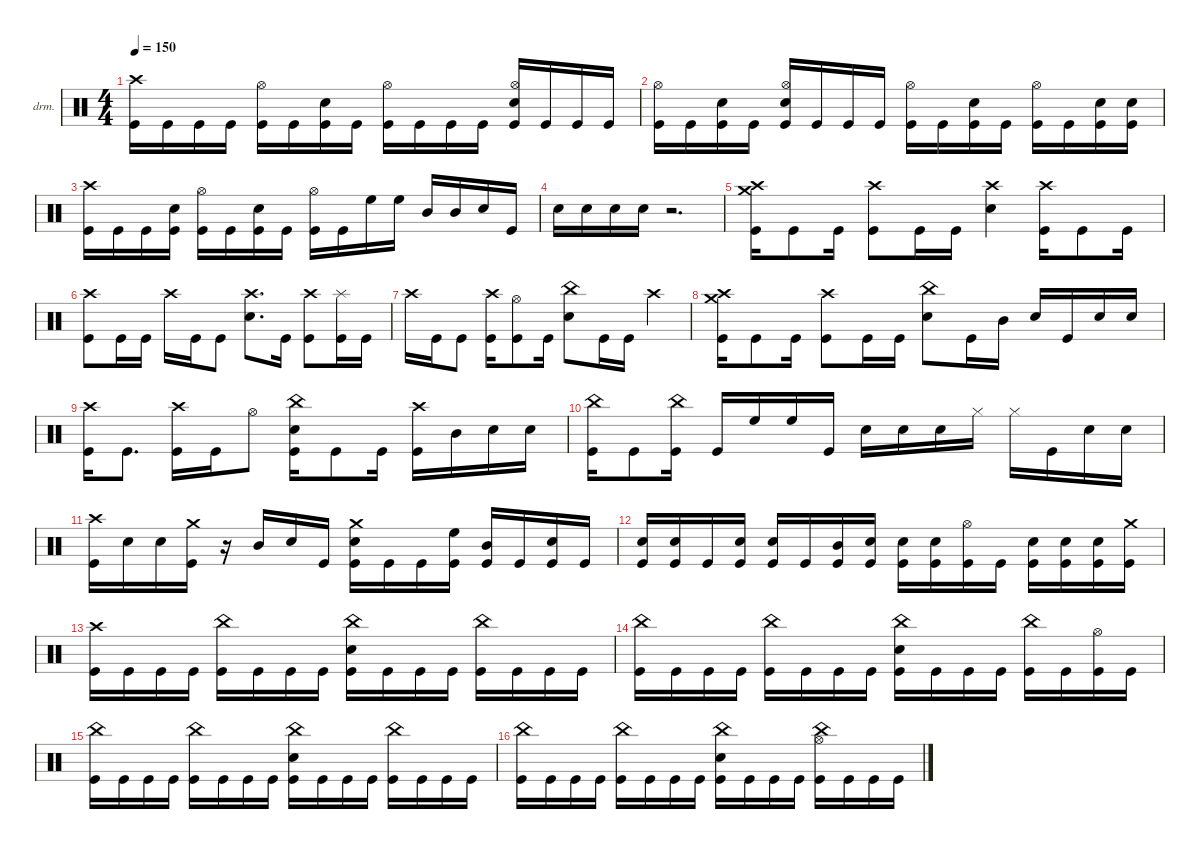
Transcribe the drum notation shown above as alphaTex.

\defaultSystemsLayout 4
\hideDynamics
\bracketExtendMode nobrackets
\firstSystemTrackNameOrientation horizontal
\track ("Drumkit" "drm.") {instrument percussion}
\staff {score}
\articulation defaults
\ts (4 4)
\tempo 150
\clef neutral
\ks c
("Kick (hit)" "Crash high (hit)"{acc #}).16{dy ff} "Kick (hit)".16{dy fff} "Kick (hit)".16 "Kick (hit)".16 ("Kick (hit)" "Hi-Hat (open)"{acc #}).16 "Kick (hit)".16 ("Kick (hit)" "Snare (hit) 2").16 "Kick (hit)".16 ("Kick (hit)" "Hi-Hat (open)"{acc #}).16 "Kick (hit)".16 "Kick (hit)".16 "Kick (hit)".16 ("Kick (hit)" "Snare (hit) 2" "Hi-Hat (open)"{acc #}).16 "Kick (hit)".16 "Kick (hit)".16 "Kick (hit)".16 |
("Kick (hit)" "Hi-Hat (open)"{acc #}).16 "Kick (hit)".16 ("Kick (hit)" "Snare (hit) 2").16 "Kick (hit)".16 ("Kick (hit)" "Snare (hit) 2" "Hi-Hat (open)"{acc #}).16 "Kick (hit)".16 "Kick (hit)".16 "Kick (hit)".16{dy ff} ("Kick (hit)" "Hi-Hat (open)"{acc #}).16 "Kick (hit)".16{dy fff} ("Kick (hit)" "Snare (hit) 2").16 "Kick (hit)".16 ("Kick (hit)" "Hi-Hat (open)"{acc #}).16 "Kick (hit)".16 ("Kick (hit)" "Snare (hit) 2").16 ("Kick (hit)" "Snare (hit) 2").16 |
("Kick (hit)" "Crash high (hit)"{acc #}).16 "Kick (hit)".16 "Kick (hit)".16 ("Kick (hit)" "Snare (hit) 2").16 ("Kick (hit)" "Hi-Hat (open)"{acc #}).16 "Kick (hit)".16 ("Kick (hit)" "Snare (hit) 2").16 "Kick (hit)".16 ("Kick (hit)" "Hi-Hat (open)"{acc #}).16 "Kick (hit)".16 "High Floor Tom (hit)".16{dy ff} "High Floor Tom (hit)".16 "Mid Tom (hit)".16 "Mid Tom (hit)".16 "Snare (hit) 2".16 "Kick (hit)".16{dy fff} |
"Snare (hit) 2".16{dy ff} "Snare (hit) 2".16{dy fff} "Snare (hit) 2".16 "Snare (hit) 2".16 r.2{d} |
("Kick (hit)" "Crash high (hit)"{acc #} "Crash medium (hit)").16 "Kick (hit)".8 "Kick (hit)".16 ("Kick (hit)" "Crash high (hit)"{acc #}).8 "Kick (hit)".16 "Kick (hit)".16 ("Snare (hit) 2" "Crash high (hit)"{acc #}).4 ("Kick (hit)" "Crash high (hit)"{acc #}).16 "Kick (hit)".8 "Kick (hit)".16 |
("Kick (hit)" "Crash high (hit)"{acc #}).8 "Kick (hit)".16 "Kick (hit)".16 "Crash high (hit)"{acc #}.16{dy ff} "Kick (hit)".16{dy fff} "Kick (hit)".8{dy ff} ("Snare (hit) 2" "Crash high (hit)"{acc #}).8{d} "Kick (hit)".16{dy fff} ("Kick (hit)" "Crash high (hit)"{acc #}).8 ("Kick (hit)" "Splash (hit)").16 "Kick (hit)".16 |
"Crash high (hit)"{acc #}.16{dy ff} "Kick (hit)".16{dy fff} "Kick (hit)".8 ("Kick (hit)" "Crash high (hit)"{acc #}).16 ("Kick (hit)" "Hi-Hat (open)"{acc #}).8 "Kick (hit)".16 ("Snare (hit) 2" "China (hit)").8 "Kick (hit)".16 "Kick (hit)".16 "Crash high (hit)"{acc #}.4{dy ff} |
("Kick (hit)" "Crash high (hit)"{acc #} "Crash medium (hit)").16 "Kick (hit)".8{dy fff} "Kick (hit)".16 ("Kick (hit)" "Crash high (hit)"{acc #}).8{dy ff} "Kick (hit)".16{dy fff} "Kick (hit)".16 ("Snare (hit) 2" "China (hit)").8 "Kick (hit)".16 "Mid Tom (hit)".16{dy ff} "Snare (hit) 2".16 "Kick (hit)".16{dy fff} "Snare (hit) 2".16{dy ff} "Snare (hit) 2".16{dy fff} |
("Kick (hit)" "Crash high (hit)"{acc #}).16 "Kick (hit)".8{d} ("Kick (hit)" "Crash high (hit)"{acc #}).16 "Kick (hit)".16 "Hi-Hat (open)"{acc #}.8{dy ff} ("Kick (hit)" "Snare (hit) 2" "China (hit)").16 "Kick (hit)".8{dy fff} "Kick (hit)".16 ("Kick (hit)" "Crash high (hit)"{acc #}).16 "Mid Tom (hit)".16{dy ff} "Snare (hit) 2".16 "Snare (hit) 2".16{dy fff} |
("Kick (hit)" "China (hit)").16 "Kick (hit)".8 ("Kick (hit)" "China (hit)").16 "Kick (hit)".16 "High Floor Tom (hit)".16{dy ff} "High Floor Tom (hit)".16 "Kick (hit)".16{dy fff} "Snare (hit) 2".16 "Snare (hit) 2".16{dy pp} "Snare (hit) 2".16 "Hi-Hat (closed)"{acc #}.16{dy ff} "Hi-Hat (closed)"{acc #}.16 "Kick (hit)".16{dy fff} "Snare (hit) 2".16{dy ff} "Snare (hit) 2".16{dy fff} |
("Kick (hit)" "Crash high (hit)"{acc #}).16 "Snare (hit) 2".16{dy p} "Snare (hit) 2".16 ("Kick (hit)" "Crash medium (hit)").16{dy fff} r.16 "Mid Tom (hit)".16{dy ff} "Snare (hit) 2".16 "Kick (hit)".16{dy fff} ("Kick (hit)" "Snare (hit) 2" "Crash medium (hit)").16 "Kick (hit)".16 "Kick (hit)".16 ("Kick (hit)" "High Floor Tom (hit)").16 ("Kick (hit)" "Mid Tom (hit)").16 "Kick (hit)".16 ("Kick (hit)" "Snare (hit) 2").16 "Kick (hit)".16 |
("Kick (hit)" "Snare (hit) 2").16{dy ff} ("Kick (hit)" "Snare (hit) 2").16{dy fff} "Kick (hit)".16 ("Kick (hit)" "Snare (hit) 2").16 ("Kick (hit)" "Snare (hit) 2").16 "Kick (hit)".16 ("Kick (hit)" "Mid Tom (hit)").16{dy ff} ("Kick (hit)" "Snare (hit) 2").16 ("Kick (hit)" "Snare (hit) 2").16{dy fff} ("Kick (hit)" "Snare (hit) 2").16 ("Kick (hit)" "Hi-Hat (open)"{acc #}).16 "Kick (hit)".16 ("Kick (hit)" "Snare (hit) 2").16{dy ff} ("Kick (hit)" "Snare (hit) 2").16{dy fff} ("Kick (hit)" "Snare (hit) 2").16 ("Kick (hit)" "Crash medium (hit)").16 |
("Kick (hit)" "Crash high (hit)"{acc #}).16 "Kick (hit)".16 "Kick (hit)".16 "Kick (hit)".16 ("Kick (hit)" "China (hit)").16 "Kick (hit)".16 "Kick (hit)".16{dy ff} "Kick (hit)".16{dy fff} ("Kick (hit)" "Snare (hit) 2" "China (hit)").16 "Kick (hit)".16 "Kick (hit)".16 "Kick (hit)".16 ("Kick (hit)" "China (hit)").16 "Kick (hit)".16 "Kick (hit)".16 "Kick (hit)".16 |
("Kick (hit)" "China (hit)").16 "Kick (hit)".16 "Kick (hit)".16{dy ff} "Kick (hit)".16{dy fff} ("Kick (hit)" "China (hit)").16 "Kick (hit)".16 "Kick (hit)".16 "Kick (hit)".16 ("Kick (hit)" "Snare (hit) 2" "China (hit)").16 "Kick (hit)".16 "Kick (hit)".16 "Kick (hit)".16 ("Kick (hit)" "China (hit)").16 "Kick (hit)".16 ("Kick (hit)" "Hi-Hat (open)"{acc #}).16{dy ff} "Kick (hit)".16{dy fff} |
("Kick (hit)" "China (hit)").16 "Kick (hit)".16 "Kick (hit)".16{dy ff} "Kick (hit)".16{dy fff} ("Kick (hit)" "China (hit)").16 "Kick (hit)".16 "Kick (hit)".16{dy ff} "Kick (hit)".16{dy fff} ("Kick (hit)" "Snare (hit) 2" "China (hit)").16 "Kick (hit)".16 "Kick (hit)".16 "Kick (hit)".16 ("Kick (hit)" "China (hit)").16 "Kick (hit)".16 "Kick (hit)".16{dy ff} "Kick (hit)".16{dy fff} |
("Kick (hit)" "China (hit)").16 "Kick (hit)".16 "Kick (hit)".16 "Kick (hit)".16 ("Kick (hit)" "China (hit)").16 "Kick (hit)".16 "Kick (hit)".16 "Kick (hit)".16 ("Kick (hit)" "Snare (hit) 2" "China (hit)").16 "Kick (hit)".16 "Kick (hit)".16 "Kick (hit)".16 ("Kick (hit)" "Hi-Hat (open)"{acc #} "China (hit)").16 "Kick (hit)".16 "Kick (hit)".16{dy ff} "Kick (hit)".16{dy fff}
